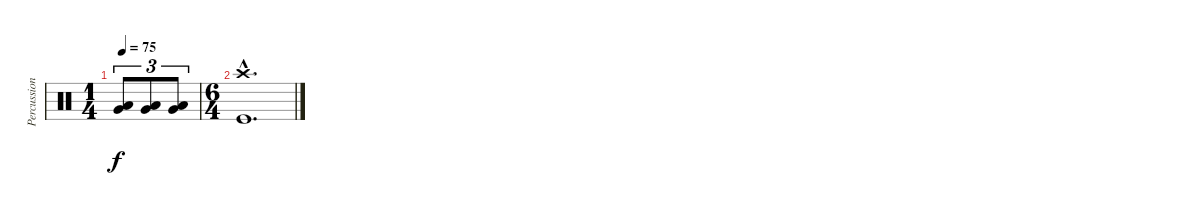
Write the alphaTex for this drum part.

\track ("Percussion" "Percussion") {instrument percussion}
\staff {score}
\articulation defaults
\ts (1 4)
\tempo 70
\tempo 75
\clef neutral
\ks c
("Low Tom (hit)" "Very Low Tom (hit)").8{tu (3 2) dy f} ("Low Tom (hit)" "Very Low Tom (hit)").8{tu (3 2)} ("Low Tom (hit)" "Very Low Tom (hit)").8{tu (3 2)} |
\ts (6 4)
("Crash high (hit)"{hac} "Kick (hit)"{hac}).1{d}
